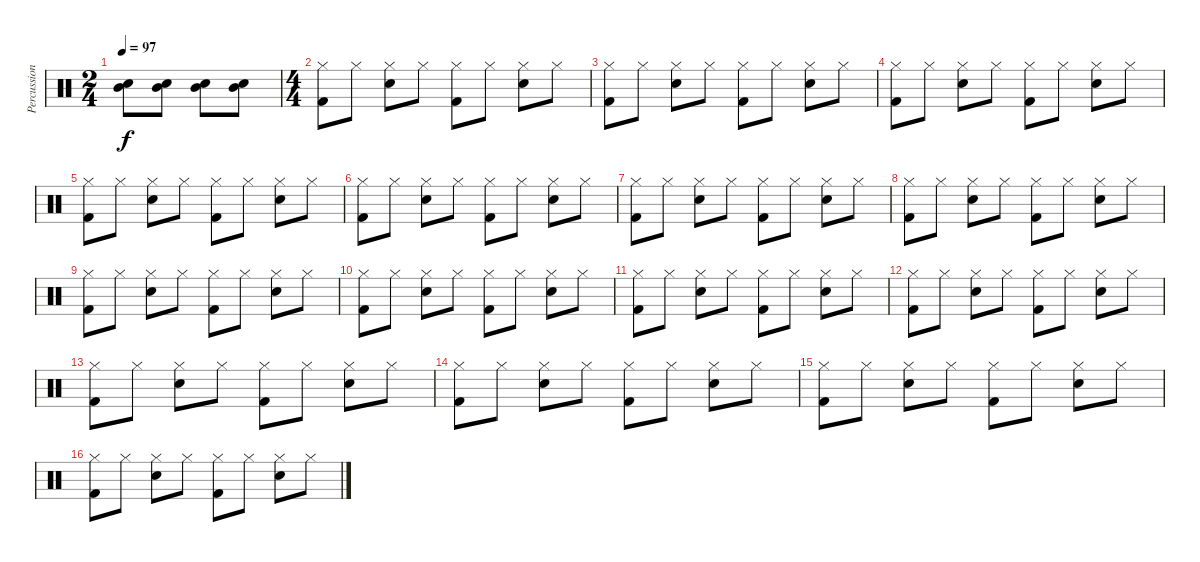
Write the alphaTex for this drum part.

\track ("Percussion" "Percussion") {instrument percussion}
\staff {score}
\articulation defaults
\ts (2 4)
\tempo 97
\clef neutral
\ks c
("Snare (hit) 2" "Mid Tom (hit)").8{dy f} ("Snare (hit) 2" "Mid Tom (hit)").8 ("Snare (hit) 2" "Mid Tom (hit)").8 ("Snare (hit) 2" "Mid Tom (hit)").8 |
\ts (4 4)
("Hi-Hat (closed)" "Kick (hit) 2").8 "Hi-Hat (closed)".8 ("Hi-Hat (closed)" "Snare (hit) 2").8 "Hi-Hat (closed)".8 ("Hi-Hat (closed)" "Kick (hit) 2").8 "Hi-Hat (closed)".8 ("Hi-Hat (closed)" "Snare (hit) 2").8 "Hi-Hat (closed)".8 |
("Hi-Hat (closed)" "Kick (hit) 2").8 "Hi-Hat (closed)".8 ("Hi-Hat (closed)" "Snare (hit) 2").8 "Hi-Hat (closed)".8 ("Hi-Hat (closed)" "Kick (hit) 2").8 "Hi-Hat (closed)".8 ("Hi-Hat (closed)" "Snare (hit) 2").8 "Hi-Hat (closed)".8 |
("Hi-Hat (closed)" "Kick (hit) 2").8 "Hi-Hat (closed)".8 ("Hi-Hat (closed)" "Snare (hit) 2").8 "Hi-Hat (closed)".8 ("Hi-Hat (closed)" "Kick (hit) 2").8 "Hi-Hat (closed)".8 ("Hi-Hat (closed)" "Snare (hit) 2").8 "Hi-Hat (closed)".8 |
("Hi-Hat (closed)" "Kick (hit) 2").8 "Hi-Hat (closed)".8 ("Hi-Hat (closed)" "Snare (hit) 2").8 "Hi-Hat (closed)".8 ("Hi-Hat (closed)" "Kick (hit) 2").8 "Hi-Hat (closed)".8 ("Hi-Hat (closed)" "Snare (hit) 2").8 "Hi-Hat (closed)".8 |
("Hi-Hat (closed)" "Kick (hit) 2").8 "Hi-Hat (closed)".8 ("Hi-Hat (closed)" "Snare (hit) 2").8 "Hi-Hat (closed)".8 ("Hi-Hat (closed)" "Kick (hit) 2").8 "Hi-Hat (closed)".8 ("Hi-Hat (closed)" "Snare (hit) 2").8 "Hi-Hat (closed)".8 |
("Hi-Hat (closed)" "Kick (hit) 2").8 "Hi-Hat (closed)".8 ("Hi-Hat (closed)" "Snare (hit) 2").8 "Hi-Hat (closed)".8 ("Hi-Hat (closed)" "Kick (hit) 2").8 "Hi-Hat (closed)".8 ("Hi-Hat (closed)" "Snare (hit) 2").8 "Hi-Hat (closed)".8 |
("Hi-Hat (closed)" "Kick (hit) 2").8 "Hi-Hat (closed)".8 ("Hi-Hat (closed)" "Snare (hit) 2").8 "Hi-Hat (closed)".8 ("Hi-Hat (closed)" "Kick (hit) 2").8 "Hi-Hat (closed)".8 ("Hi-Hat (closed)" "Snare (hit) 2").8 "Hi-Hat (closed)".8 |
("Hi-Hat (closed)" "Kick (hit) 2").8 "Hi-Hat (closed)".8 ("Hi-Hat (closed)" "Snare (hit) 2").8 "Hi-Hat (closed)".8 ("Hi-Hat (closed)" "Kick (hit) 2").8 "Hi-Hat (closed)".8 ("Hi-Hat (closed)" "Snare (hit) 2").8 "Hi-Hat (closed)".8 |
("Hi-Hat (closed)" "Kick (hit) 2").8 "Hi-Hat (closed)".8 ("Hi-Hat (closed)" "Snare (hit) 2").8 "Hi-Hat (closed)".8 ("Hi-Hat (closed)" "Kick (hit) 2").8 "Hi-Hat (closed)".8 ("Hi-Hat (closed)" "Snare (hit) 2").8 "Hi-Hat (closed)".8 |
("Hi-Hat (closed)" "Kick (hit) 2").8 "Hi-Hat (closed)".8 ("Hi-Hat (closed)" "Snare (hit) 2").8 "Hi-Hat (closed)".8 ("Hi-Hat (closed)" "Kick (hit) 2").8 "Hi-Hat (closed)".8 ("Hi-Hat (closed)" "Snare (hit) 2").8 "Hi-Hat (closed)".8 |
("Hi-Hat (closed)" "Kick (hit) 2").8 "Hi-Hat (closed)".8 ("Hi-Hat (closed)" "Snare (hit) 2").8 "Hi-Hat (closed)".8 ("Hi-Hat (closed)" "Kick (hit) 2").8 "Hi-Hat (closed)".8 ("Hi-Hat (closed)" "Snare (hit) 2").8 "Hi-Hat (closed)".8 |
("Hi-Hat (closed)" "Kick (hit) 2").8 "Hi-Hat (closed)".8 ("Hi-Hat (closed)" "Snare (hit) 2").8 "Hi-Hat (closed)".8 ("Hi-Hat (closed)" "Kick (hit) 2").8 "Hi-Hat (closed)".8 ("Hi-Hat (closed)" "Snare (hit) 2").8 "Hi-Hat (closed)".8 |
("Hi-Hat (closed)" "Kick (hit) 2").8 "Hi-Hat (closed)".8 ("Hi-Hat (closed)" "Snare (hit) 2").8 "Hi-Hat (closed)".8 ("Hi-Hat (closed)" "Kick (hit) 2").8 "Hi-Hat (closed)".8 ("Hi-Hat (closed)" "Snare (hit) 2").8 "Hi-Hat (closed)".8 |
("Hi-Hat (closed)" "Kick (hit) 2").8 "Hi-Hat (closed)".8 ("Hi-Hat (closed)" "Snare (hit) 2").8 "Hi-Hat (closed)".8 ("Hi-Hat (closed)" "Kick (hit) 2").8 "Hi-Hat (closed)".8 ("Hi-Hat (closed)" "Snare (hit) 2").8 "Hi-Hat (closed)".8 |
("Hi-Hat (closed)" "Kick (hit) 2").8 "Hi-Hat (closed)".8 ("Hi-Hat (closed)" "Snare (hit) 2").8 "Hi-Hat (closed)".8 ("Hi-Hat (closed)" "Kick (hit) 2").8 "Hi-Hat (closed)".8 ("Hi-Hat (closed)" "Snare (hit) 2").8 "Hi-Hat (closed)".8
